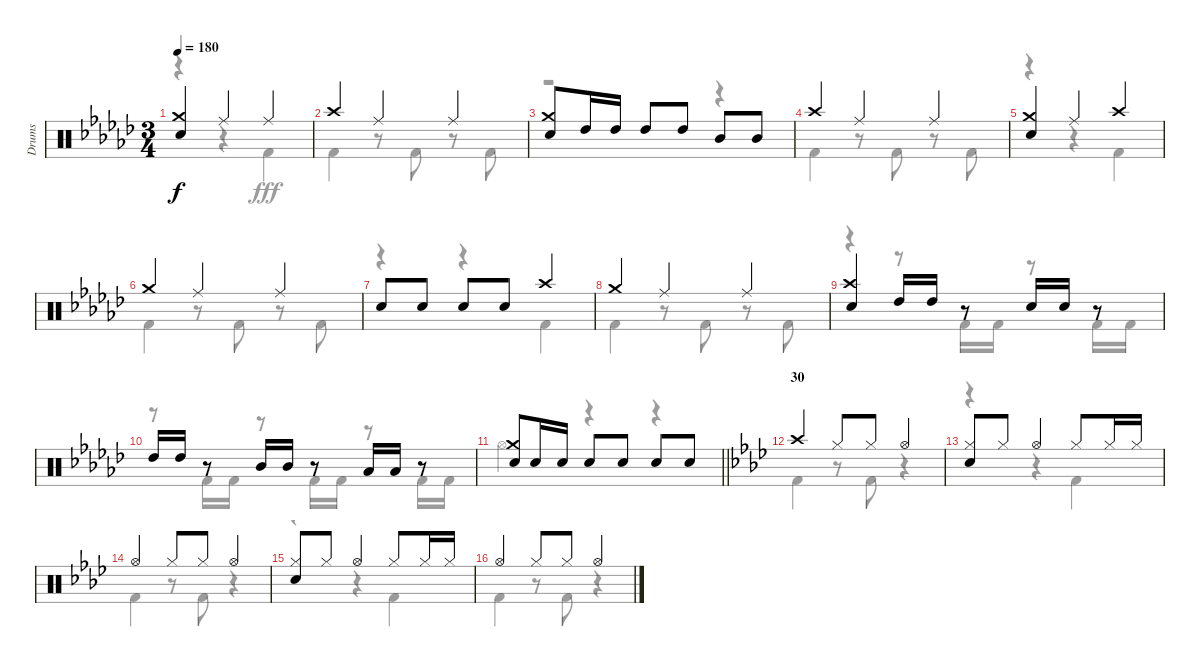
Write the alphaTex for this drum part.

\track ("Drums" "Drums") {instrument percussion}
\staff {score}
\articulation defaults
\voice
\ts (3 4)
\tempo 180
\clef neutral
\ks gb
("Crash medium (hit)" "Snare (hit) 2").4{dy f} "Ride (middle)".4 "Ride (middle)".4 |
"Crash high (hit)".4 "Ride (middle)".4 "Ride (middle)".4 |
("Crash medium (hit)" "Snare (hit) 2").8 "High Tom (hit)".16 "High Tom (hit)".16 "High Tom (hit)".8 "High Tom (hit)".8 "Mid Tom (hit)".8 "Mid Tom (hit)".8 |
"Crash high (hit)".4 "Ride (middle)".4 "Ride (middle)".4 |
("Crash medium (hit)" "Snare (hit) 2").4 "Ride (middle)".4 "Crash high (hit)".4 |
"Crash medium (hit)".4 "Ride (middle)".4 "Ride (middle)".4 |
"Snare (hit) 2".8 "Snare (hit) 2".8 "Snare (hit) 2".8 "Snare (hit) 2".8 "Crash high (hit)".4 |
"Crash medium (hit)".4 "Ride (middle)".4 "Ride (middle)".4 |
("Crash high (hit)" "Snare (hit) 2").4 "High Tom (hit)".16 "High Tom (hit)".16 r.8 "Snare (hit) 2".16 "Snare (hit) 2".16 r.8 |
"High Tom (hit)".16 "High Tom (hit)".16 r.8 "Mid Tom (hit)".16 "Mid Tom (hit)".16 r.8 "Low Tom (hit)".16 "Low Tom (hit)".16 r.8 |
\barLineRight lightlight
("Crash medium (hit)" "Snare (hit) 2").8 "Snare (hit) 2".16 "Snare (hit) 2".16 "Snare (hit) 2".8 "Snare (hit) 2".8 "Snare (hit) 2".8 "Snare (hit) 2".8 |
\section ("" "30")
\ks ab "Crash high (hit)".4 "Hi-Hat (closed)".8 "Hi-Hat (closed)".8 "Hi-Hat (open)".4
|
("Hi-Hat (closed)" "Snare (hit) 2").8 "Hi-Hat (closed)".8 "Hi-Hat (open)".4 "Hi-Hat (closed)".8 "Hi-Hat (closed)".16 "Hi-Hat (closed)".16 |
"Hi-Hat (open)".4 "Hi-Hat (closed)".8 "Hi-Hat (closed)".8 "Hi-Hat (open)".4 |
("Hi-Hat (closed)" "Snare (hit) 2").8 "Hi-Hat (closed)".8 "Hi-Hat (open)".4 "Hi-Hat (closed)".8 "Hi-Hat (closed)".16 "Hi-Hat (closed)".16 |
"Hi-Hat (open)".4 "Hi-Hat (closed)".8 "Hi-Hat (closed)".8 "Hi-Hat (open)".4
\voice
\clef neutral
\ottava regular
\simile none
\ks gb
r.4{dy fff} r.4 "Kick (hit) 2".4 |
"Kick (hit) 2".4 r.8 "Kick (hit) 2".8 r.8 "Kick (hit) 2".8 |
r.2 r.4 |
"Kick (hit) 2".4 r.8 "Kick (hit) 2".8 r.8 "Kick (hit) 2".8 |
r.4 r.4 "Kick (hit) 2".4 |
"Kick (hit) 2".4 r.8 "Kick (hit) 2".8 r.8 "Kick (hit) 2".8 |
r.4 r.4 "Kick (hit) 2".4 |
"Kick (hit) 2".4 r.8 "Kick (hit) 2".8 r.8 "Kick (hit) 2".8 |
r.4 r.8 "Kick (hit) 2".16 "Kick (hit) 2".16 r.8 "Kick (hit) 2".16 "Kick (hit) 2".16 |
r.8 "Kick (hit) 2".16 "Kick (hit) 2".16 r.8 "Kick (hit) 2".16 "Kick (hit) 2".16 r.8 "Kick (hit) 2".16 "Kick (hit) 2".16 |
\barLineRight lightlight "Hi-Hat (open)".4
r.4 r.4 |
\ks ab "Kick (hit) 2".4
r.8 "Kick (hit) 2".8 r.4 |
r.4 r.4 "Kick (hit) 2".4 |
"Kick (hit) 2".4 r.8 "Kick (hit) 2".8 r.4 |
r.4 r.4 "Kick (hit) 2".4 |
"Kick (hit) 2".4 r.8 "Kick (hit) 2".8 r.4
